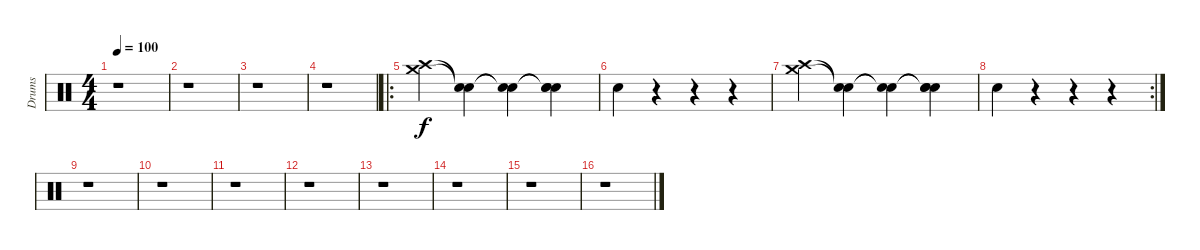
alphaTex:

\track ("Drums" "Drums") {instrument percussion}
\staff {score}
\articulation defaults
\ts (4 4)
\tempo 100
\clef neutral
\ks c
r.1{dy f} |
r.1 |
r.1 |
r.1 |
\ro
("Crash high (hit)" "Crash medium (hit)").4 ("Snare (hit)"{t} "Snare (hit)"{t}).4 ("Snare (hit)"{t} "Snare (hit)"{t}).4 ("Snare (hit)"{t} "Snare (hit)"{t} "Metronome (bell)").4 |
"Metronome (bell)".4 r.4 r.4 r.4 |
("Crash high (hit)" "Crash medium (hit)").4 ("Snare (hit)"{t} "Snare (hit)"{t}).4 ("Snare (hit)"{t} "Snare (hit)"{t}).4 ("Snare (hit)"{t} "Snare (hit)"{t} "Metronome (bell)").4 |
\rc 2 "Metronome (bell)".4
r.4 r.4 r.4 |
r.1 |
r.1 |
r.1 |
r.1 |
r.1 |
r.1 |
r.1 |
r.1
